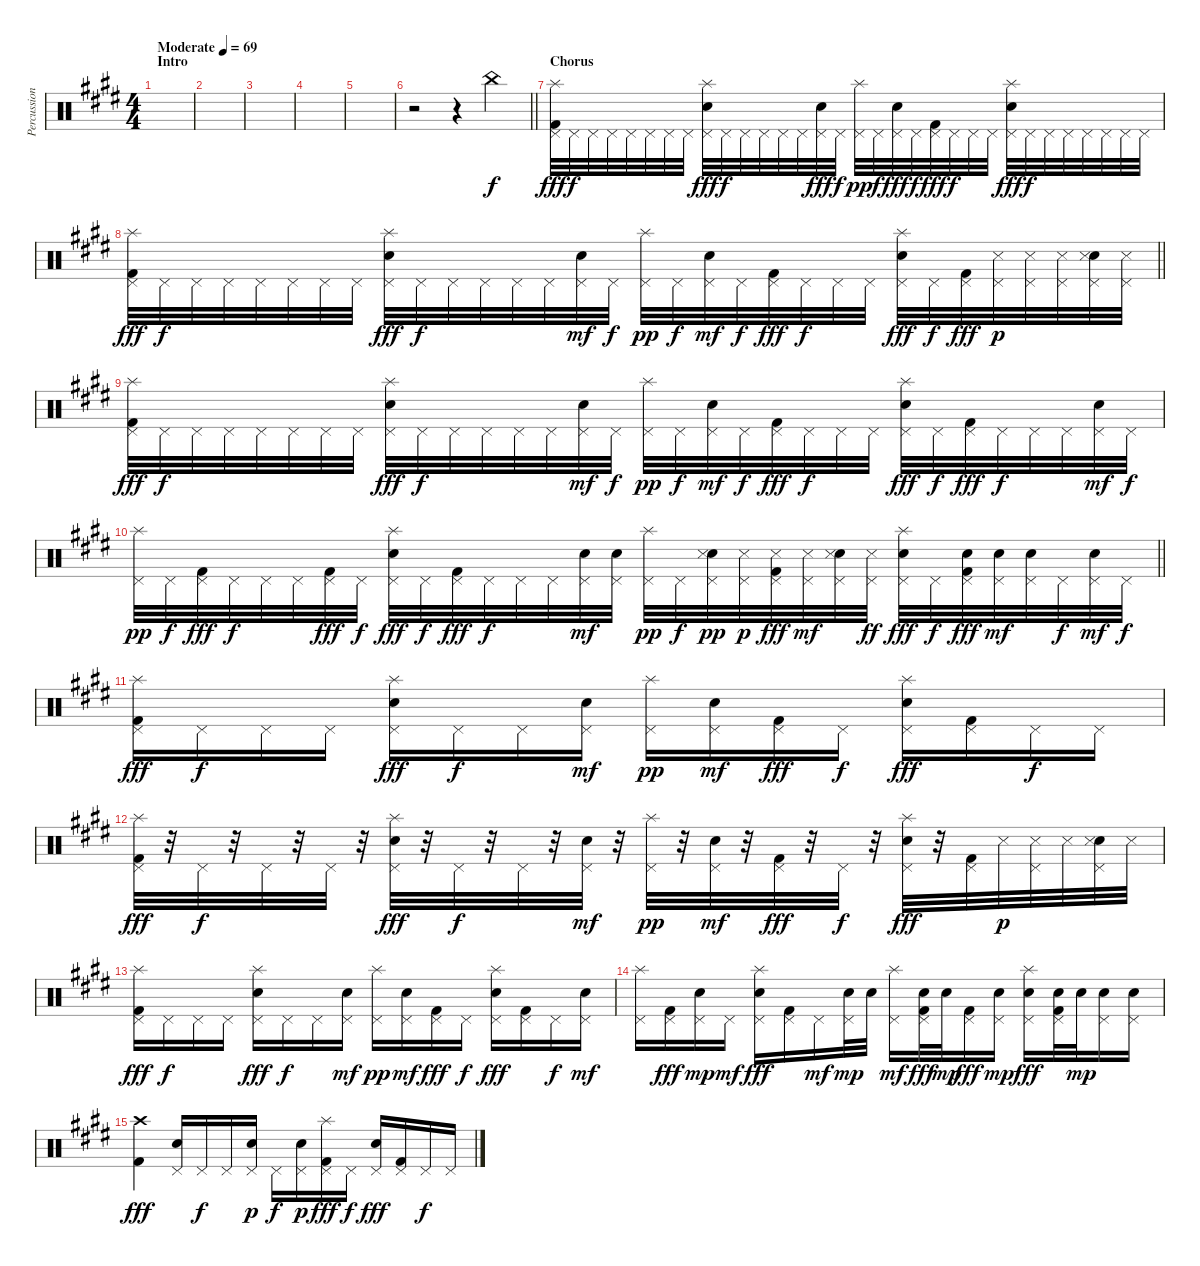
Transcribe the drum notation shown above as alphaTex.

\track ("Percussion" "Percussion") {instrument percussion}
\staff {score}
\articulation defaults
\ts (4 4)
\section ("" "Intro")
\tempo (69 "Moderate")
\clef neutral
\ks c#minor
|
|
|
|
|
\barLineRight lightlight
r.2 r.4 "China (hit)".4 |
\section ("" "Chorus")
("Splash (hit)" "Pedal Hi-Hat (hit)" "Kick (hit) 2").32{dy fff} "Pedal Hi-Hat (hit)".32{dy f} "Pedal Hi-Hat (hit)".32 "Pedal Hi-Hat (hit)".32 "Pedal Hi-Hat (hit)".32 "Pedal Hi-Hat (hit)".32 "Pedal Hi-Hat (hit)".32 "Pedal Hi-Hat (hit)".32 ("Splash (hit)" "Pedal Hi-Hat (hit)" "Hand Clap (hit)").32{dy fff} "Pedal Hi-Hat (hit)".32{dy f} "Pedal Hi-Hat (hit)".32 "Pedal Hi-Hat (hit)".32 "Pedal Hi-Hat (hit)".32 "Pedal Hi-Hat (hit)".32 ("Pedal Hi-Hat (hit)" "Snare (hit) 2").32{dy fff} "Pedal Hi-Hat (hit)".32{dy f} ("Splash (hit)" "Pedal Hi-Hat (hit)").32{dy pp} "Pedal Hi-Hat (hit)".32{dy f} ("Pedal Hi-Hat (hit)" "Snare (hit) 2").32{dy fff} "Pedal Hi-Hat (hit)".32{dy f} ("Pedal Hi-Hat (hit)" "Kick (hit) 2").32{dy fff} "Pedal Hi-Hat (hit)".32{dy f} "Pedal Hi-Hat (hit)".32 "Pedal Hi-Hat (hit)".32 ("Splash (hit)" "Pedal Hi-Hat (hit)" "Hand Clap (hit)").32{dy fff} "Pedal Hi-Hat (hit)".32{dy f} "Pedal Hi-Hat (hit)".32 "Pedal Hi-Hat (hit)".32 "Pedal Hi-Hat (hit)".32 "Pedal Hi-Hat (hit)".32 "Pedal Hi-Hat (hit)".32 "Pedal Hi-Hat (hit)".32 |
\barLineRight lightlight
("Splash (hit)" "Pedal Hi-Hat (hit)" "Kick (hit) 2").32{dy fff} "Pedal Hi-Hat (hit)".32{dy f} "Pedal Hi-Hat (hit)".32 "Pedal Hi-Hat (hit)".32 "Pedal Hi-Hat (hit)".32 "Pedal Hi-Hat (hit)".32 "Pedal Hi-Hat (hit)".32 "Pedal Hi-Hat (hit)".32 ("Splash (hit)" "Pedal Hi-Hat (hit)" "Hand Clap (hit)").32{dy fff} "Pedal Hi-Hat (hit)".32{dy f} "Pedal Hi-Hat (hit)".32 "Pedal Hi-Hat (hit)".32 "Pedal Hi-Hat (hit)".32 "Pedal Hi-Hat (hit)".32 ("Pedal Hi-Hat (hit)" "Snare (hit) 2").32{dy mf} "Pedal Hi-Hat (hit)".32{dy f} ("Splash (hit)" "Pedal Hi-Hat (hit)").32{dy pp} "Pedal Hi-Hat (hit)".32{dy f} ("Pedal Hi-Hat (hit)" "Snare (hit) 2").32{dy mf} "Pedal Hi-Hat (hit)".32{dy f} ("Pedal Hi-Hat (hit)" "Kick (hit) 2").32{dy fff} "Pedal Hi-Hat (hit)".32{dy f} "Pedal Hi-Hat (hit)".32 "Pedal Hi-Hat (hit)".32 ("Splash (hit)" "Pedal Hi-Hat (hit)" "Hand Clap (hit)").32{dy fff} "Pedal Hi-Hat (hit)".32{dy f} ("Pedal Hi-Hat (hit)" "Kick (hit) 2").32{dy fff} ("Pedal Hi-Hat (hit)" "Snare (side stick) 3").32{dy p} ("Pedal Hi-Hat (hit)" "Snare (side stick) 3").32 ("Pedal Hi-Hat (hit)" "Snare (side stick) 3").32 ("Pedal Hi-Hat (hit)" "Snare (hit) 2" "Snare (side stick) 3").32 ("Pedal Hi-Hat (hit)" "Snare (side stick) 3").32 |
("Splash (hit)" "Pedal Hi-Hat (hit)" "Kick (hit) 2").32{dy fff} "Pedal Hi-Hat (hit)".32{dy f} "Pedal Hi-Hat (hit)".32 "Pedal Hi-Hat (hit)".32 "Pedal Hi-Hat (hit)".32 "Pedal Hi-Hat (hit)".32 "Pedal Hi-Hat (hit)".32 "Pedal Hi-Hat (hit)".32 ("Splash (hit)" "Pedal Hi-Hat (hit)" "Hand Clap (hit)").32{dy fff} "Pedal Hi-Hat (hit)".32{dy f} "Pedal Hi-Hat (hit)".32 "Pedal Hi-Hat (hit)".32 "Pedal Hi-Hat (hit)".32 "Pedal Hi-Hat (hit)".32 ("Pedal Hi-Hat (hit)" "Snare (hit) 2").32{dy mf} "Pedal Hi-Hat (hit)".32{dy f} ("Splash (hit)" "Pedal Hi-Hat (hit)").32{dy pp} "Pedal Hi-Hat (hit)".32{dy f} ("Pedal Hi-Hat (hit)" "Snare (hit) 2").32{dy mf} "Pedal Hi-Hat (hit)".32{dy f} ("Pedal Hi-Hat (hit)" "Kick (hit) 2").32{dy fff} "Pedal Hi-Hat (hit)".32{dy f} "Pedal Hi-Hat (hit)".32 "Pedal Hi-Hat (hit)".32 ("Splash (hit)" "Pedal Hi-Hat (hit)" "Hand Clap (hit)").32{dy fff} "Pedal Hi-Hat (hit)".32{dy f} ("Pedal Hi-Hat (hit)" "Kick (hit) 2").32{dy fff} "Pedal Hi-Hat (hit)".32{dy f} "Pedal Hi-Hat (hit)".32 "Pedal Hi-Hat (hit)".32 ("Pedal Hi-Hat (hit)" "Snare (hit) 2").32{dy mf} "Pedal Hi-Hat (hit)".32{dy f} |
\barLineRight lightlight
("Splash (hit)" "Pedal Hi-Hat (hit)").32{dy pp} "Pedal Hi-Hat (hit)".32{dy f} ("Pedal Hi-Hat (hit)" "Kick (hit) 2").32{dy fff} "Pedal Hi-Hat (hit)".32{dy f} "Pedal Hi-Hat (hit)".32 "Pedal Hi-Hat (hit)".32 ("Pedal Hi-Hat (hit)" "Kick (hit) 2").32{dy fff} "Pedal Hi-Hat (hit)".32{dy f} ("Splash (hit)" "Pedal Hi-Hat (hit)" "Hand Clap (hit)").32{dy fff} "Pedal Hi-Hat (hit)".32{dy f} ("Pedal Hi-Hat (hit)" "Kick (hit) 2").32{dy fff} "Pedal Hi-Hat (hit)".32{dy f} "Pedal Hi-Hat (hit)".32 "Pedal Hi-Hat (hit)".32 ("Pedal Hi-Hat (hit)" "Snare (hit) 2").32{dy mf} ("Pedal Hi-Hat (hit)" "Snare (hit) 2").32 ("Splash (hit)" "Pedal Hi-Hat (hit)").32{dy pp} "Pedal Hi-Hat (hit)".32{dy f} ("Pedal Hi-Hat (hit)" "Snare (hit) 2" "Snare (side stick) 3").32{dy pp} ("Pedal Hi-Hat (hit)" "Snare (side stick) 3").32{dy p} ("Pedal Hi-Hat (hit)" "Snare (side stick) 3" "Kick (hit) 2").32{dy fff} ("Pedal Hi-Hat (hit)" "Snare (side stick) 3").32{dy mf} ("Pedal Hi-Hat (hit)" "Snare (hit) 2" "Snare (side stick) 3").32 ("Pedal Hi-Hat (hit)" "Snare (side stick) 3").32{dy ff} ("Splash (hit)" "Pedal Hi-Hat (hit)" "Hand Clap (hit)").32{dy fff} "Pedal Hi-Hat (hit)".32{dy f} ("Pedal Hi-Hat (hit)" "Snare (hit) 2" "Kick (hit) 2").32{dy fff} ("Pedal Hi-Hat (hit)" "Snare (hit) 2").32{dy mf} ("Pedal Hi-Hat (hit)" "Snare (hit) 2").32 "Pedal Hi-Hat (hit)".32{dy f} ("Pedal Hi-Hat (hit)" "Snare (hit) 2").32{dy mf} "Pedal Hi-Hat (hit)".32{dy f} |
("Splash (hit)" "Pedal Hi-Hat (hit)" "Kick (hit) 2").16{dy fff} "Pedal Hi-Hat (hit)".16{dy f} "Pedal Hi-Hat (hit)".16 "Pedal Hi-Hat (hit)".16 ("Splash (hit)" "Pedal Hi-Hat (hit)" "Hand Clap (hit)").16{dy fff} "Pedal Hi-Hat (hit)".16{dy f} "Pedal Hi-Hat (hit)".16 ("Pedal Hi-Hat (hit)" "Snare (hit) 2").16{dy mf} ("Splash (hit)" "Pedal Hi-Hat (hit)").16{dy pp} ("Pedal Hi-Hat (hit)" "Snare (hit) 2").16{dy mf} ("Pedal Hi-Hat (hit)" "Kick (hit) 2").16{dy fff} "Pedal Hi-Hat (hit)".16{dy f} ("Splash (hit)" "Pedal Hi-Hat (hit)" "Hand Clap (hit)").16{dy fff} ("Pedal Hi-Hat (hit)" "Kick (hit) 2").16 "Pedal Hi-Hat (hit)".16{dy f} "Pedal Hi-Hat (hit)".16 |
("Splash (hit)" "Pedal Hi-Hat (hit)" "Kick (hit) 2").32{dy fff} r.32 "Pedal Hi-Hat (hit)".32{dy f} r.32 "Pedal Hi-Hat (hit)".32 r.32 "Pedal Hi-Hat (hit)".32 r.32 ("Splash (hit)" "Pedal Hi-Hat (hit)" "Hand Clap (hit)").32{dy fff} r.32 "Pedal Hi-Hat (hit)".32{dy f} r.32 "Pedal Hi-Hat (hit)".32 r.32 ("Pedal Hi-Hat (hit)" "Snare (hit) 2").32{dy mf} r.32 ("Splash (hit)" "Pedal Hi-Hat (hit)").32{dy pp} r.32 ("Pedal Hi-Hat (hit)" "Snare (hit) 2").32{dy mf} r.32 ("Pedal Hi-Hat (hit)" "Kick (hit) 2").32{dy fff} r.32 "Pedal Hi-Hat (hit)".32{dy f} r.32 ("Splash (hit)" "Pedal Hi-Hat (hit)" "Hand Clap (hit)").32{dy fff} r.32 ("Pedal Hi-Hat (hit)" "Kick (hit) 2").32 "Snare (side stick) 3".32{dy p} ("Pedal Hi-Hat (hit)" "Snare (side stick) 3").32 "Snare (side stick) 3".32 ("Pedal Hi-Hat (hit)" "Snare (hit) 2" "Snare (side stick) 3").32 "Snare (side stick) 3".32 |
("Splash (hit)" "Pedal Hi-Hat (hit)" "Kick (hit) 2").16{dy fff} "Pedal Hi-Hat (hit)".16{dy f} "Pedal Hi-Hat (hit)".16 "Pedal Hi-Hat (hit)".16 ("Splash (hit)" "Pedal Hi-Hat (hit)" "Hand Clap (hit)").16{dy fff} "Pedal Hi-Hat (hit)".16{dy f} "Pedal Hi-Hat (hit)".16 ("Pedal Hi-Hat (hit)" "Snare (hit) 2").16{dy mf} ("Splash (hit)" "Pedal Hi-Hat (hit)").16{dy pp} ("Pedal Hi-Hat (hit)" "Snare (hit) 2").16{dy mf} ("Pedal Hi-Hat (hit)" "Kick (hit) 2").16{dy fff} "Pedal Hi-Hat (hit)".16{dy f} ("Splash (hit)" "Pedal Hi-Hat (hit)" "Hand Clap (hit)").16{dy fff} ("Pedal Hi-Hat (hit)" "Kick (hit) 2").16 "Pedal Hi-Hat (hit)".16{dy f} ("Pedal Hi-Hat (hit)" "Snare (hit) 2").16{dy mf} |
("Splash (hit)" "Pedal Hi-Hat (hit)").16 ("Pedal Hi-Hat (hit)" "Kick (hit) 2").16{dy fff} ("Pedal Hi-Hat (hit)" "Snare (hit) 2").16{dy mp} "Pedal Hi-Hat (hit)".16{dy mf} ("Splash (hit)" "Pedal Hi-Hat (hit)" "Hand Clap (hit)").16{dy fff} ("Pedal Hi-Hat (hit)" "Kick (hit) 2").16 "Pedal Hi-Hat (hit)".16{dy mf} ("Pedal Hi-Hat (hit)" "Snare (hit) 2").32{dy mp} "Snare (hit) 2".32 ("Splash (hit)" "Pedal Hi-Hat (hit)").16{dy mf} ("Pedal Hi-Hat (hit)" "Snare (hit) 2" "Kick (hit) 2").32{dy fff} "Snare (hit) 2".32{dy mp} ("Pedal Hi-Hat (hit)" "Kick (hit) 2").16{dy fff} ("Pedal Hi-Hat (hit)" "Snare (hit) 2").16{dy mp} ("Splash (hit)" "Pedal Hi-Hat (hit)" "Hand Clap (hit)").16{dy fff} ("Pedal Hi-Hat (hit)" "Snare (hit) 2" "Kick (hit) 2").32 "Snare (hit) 2".32{dy mp} ("Pedal Hi-Hat (hit)" "Snare (hit) 2").16 ("Pedal Hi-Hat (hit)" "Snare (hit) 2").16 |
("Crash high (hit)" "Kick (hit) 2").4{dy fff} ("Pedal Hi-Hat (hit)" "Hand Clap (hit)").16 "Pedal Hi-Hat (hit)".16{dy f} "Pedal Hi-Hat (hit)".16 ("Pedal Hi-Hat (hit)" "Snare (hit) 2").16{dy p} "Pedal Hi-Hat (hit)".16{dy f} ("Pedal Hi-Hat (hit)" "Snare (hit) 2").16{dy p} ("Splash (hit)" "Pedal Hi-Hat (hit)" "Kick (hit) 2").16{dy fff} "Pedal Hi-Hat (hit)".16{dy f} ("Pedal Hi-Hat (hit)" "Hand Clap (hit)").16{dy fff} ("Pedal Hi-Hat (hit)" "Kick (hit) 2").16 "Pedal Hi-Hat (hit)".16{dy f} "Pedal Hi-Hat (hit)".16
